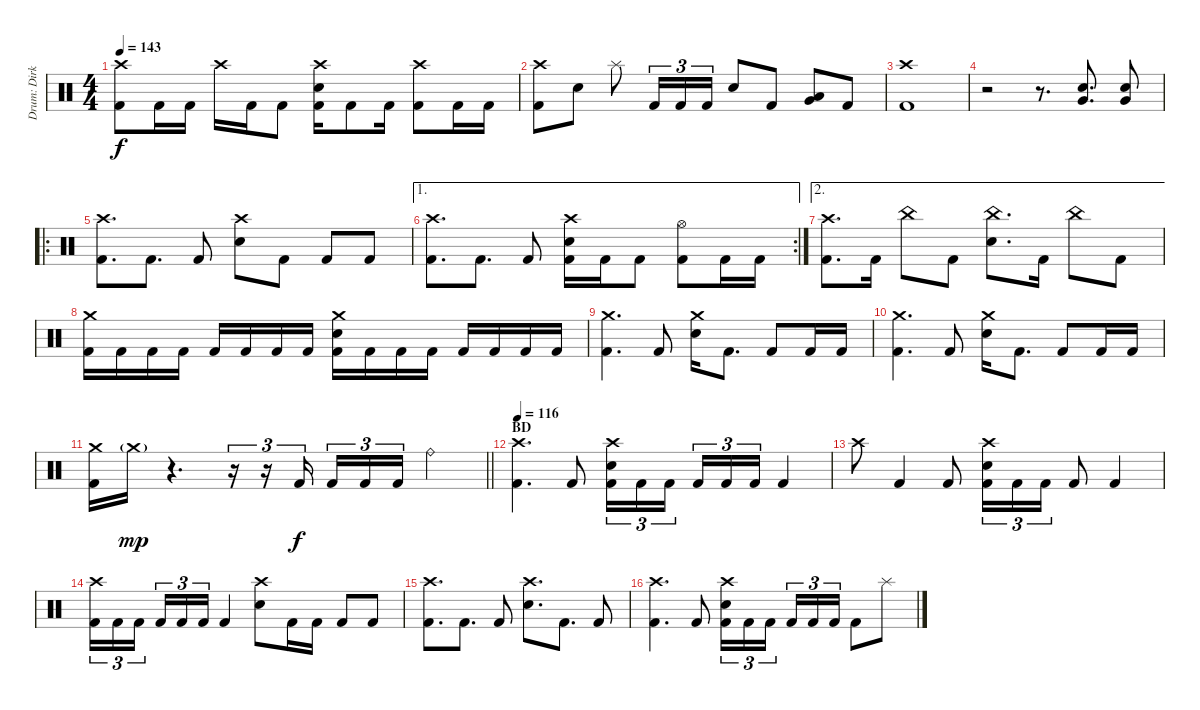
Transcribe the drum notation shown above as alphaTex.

\track ("Drum: Dirk" "Drum: Dirk") {instrument percussion}
\staff {score}
\articulation defaults
\ts (4 4)
\tempo 143
\clef neutral
\ks c
("Crash high (hit)" "Kick (hit) 2").8{dy f} "Kick (hit) 2".16 "Kick (hit) 2".16 "Crash high (hit)".16 "Kick (hit) 2".16 "Kick (hit) 2".8 ("Crash high (hit)" "Electric Snare (hit)" "Kick (hit) 2").16 "Kick (hit) 2".8 "Kick (hit) 2".16 ("Crash high (hit)" "Kick (hit) 2").8 "Kick (hit) 2".16 "Kick (hit) 2".16 |
("Crash high (hit)" "Kick (hit) 2").8 "Electric Snare (hit)".8 "Splash (hit)".8 "Kick (hit) 2".16{tu (3 2)} "Kick (hit) 2".16{tu (3 2)} "Kick (hit) 2".16{tu (3 2)} "Electric Snare (hit)".8 "Kick (hit) 2".8 ("Low Tom (hit)" "Very Low Tom (hit)").8 "Kick (hit) 2".8 |
("Crash high (hit)" "Kick (hit) 2").1 |
r.2 r.8{d} ("Electric Snare (hit)" "Very Low Tom (hit)").8{d} ("Electric Snare (hit)" "Very Low Tom (hit)").8 |
\ro
("Crash high (hit)" "Kick (hit) 2").8{d} "Kick (hit) 2".8{d} "Kick (hit) 2".8 ("Crash high (hit)" "Electric Snare (hit)").8 "Kick (hit) 2".8 "Kick (hit) 2".8 "Kick (hit) 2".8 |
\ae 1
\rc 2
("Crash high (hit)" "Kick (hit) 2").8{d} "Kick (hit) 2".8{d} "Kick (hit) 2".8 ("Crash high (hit)" "Electric Snare (hit)" "Kick (hit) 2").16 "Kick (hit) 2".16 "Kick (hit) 2".8 ("Hi-Hat (open)" "Kick (hit) 2").8 "Kick (hit) 2".16 "Kick (hit) 2".16 |
\ae 2
("Crash high (hit)" "Kick (hit) 2").8{d} "Kick (hit) 2".16 "China (hit)".8 "Kick (hit) 2".8 ("China (hit)" "Electric Snare (hit)").8{d} "Kick (hit) 2".16 "China (hit)".8 "Kick (hit) 2".8 |
("Crash medium (hit)" "Kick (hit) 2").16 "Kick (hit) 2".16 "Kick (hit) 2".16 "Kick (hit) 2".16 "Kick (hit) 2".16 "Kick (hit) 2".16 "Kick (hit) 2".16 "Kick (hit) 2".16 ("Crash medium (hit)" "Electric Snare (hit)" "Kick (hit) 2").16 "Kick (hit) 2".16 "Kick (hit) 2".16 "Kick (hit) 2".16 "Kick (hit) 2".16 "Kick (hit) 2".16 "Kick (hit) 2".16 "Kick (hit) 2".16 |
("Crash medium (hit)" "Kick (hit) 2").4{d} "Kick (hit) 2".8 ("Crash medium (hit)" "Electric Snare (hit)").16 "Kick (hit) 2".8{d} "Kick (hit) 2".8 "Kick (hit) 2".16 "Kick (hit) 2".16 |
("Crash medium (hit)" "Kick (hit) 2").4{d} "Kick (hit) 2".8 ("Crash medium (hit)" "Electric Snare (hit)").16 "Kick (hit) 2".8{d} "Kick (hit) 2".8 "Kick (hit) 2".16 "Kick (hit) 2".16 |
\barLineRight lightlight
("Crash medium (hit)" "Kick (hit) 2").16 "Crash medium (hit)"{g}.16{dy mp} r.4{d} r.16{tu (3 2)} r.16{tu (3 2)} "Kick (hit) 2".16{tu (3 2) dy f beam splitsecondary} "Kick (hit) 2".16{tu (3 2)} "Kick (hit) 2".16{tu (3 2)} "Kick (hit) 2".16{tu (3 2)} "Ride (bell)".4 |
\section ("" "BD")
\tempo 116
("Crash high (hit)" "Kick (hit) 2").4{d} "Kick (hit) 2".8 ("Crash high (hit)" "Electric Snare (hit)" "Kick (hit) 2").16{tu (3 2)} "Kick (hit) 2".16{tu (3 2)} "Kick (hit) 2".16{tu (3 2) beam splitsecondary} "Kick (hit) 2".16{tu (3 2)} "Kick (hit) 2".16{tu (3 2)} "Kick (hit) 2".16{tu (3 2)} "Kick (hit) 2".4 |
"Crash high (hit)".8 "Kick (hit) 2".4 "Kick (hit) 2".8 ("Crash high (hit)" "Electric Snare (hit)" "Kick (hit) 2").16{tu (3 2)} "Kick (hit) 2".16{tu (3 2)} "Kick (hit) 2".16{tu (3 2)} "Kick (hit) 2".8 "Kick (hit) 2".4 |
("Crash high (hit)" "Kick (hit) 2").16{tu (3 2)} "Kick (hit) 2".16{tu (3 2)} "Kick (hit) 2".16{tu (3 2) beam splitsecondary} "Kick (hit) 2".16{tu (3 2)} "Kick (hit) 2".16{tu (3 2)} "Kick (hit) 2".16{tu (3 2)} "Kick (hit) 2".4 ("Crash high (hit)" "Electric Snare (hit)").8 "Kick (hit) 2".16 "Kick (hit) 2".16 "Kick (hit) 2".8 "Kick (hit) 2".8 |
("Crash high (hit)" "Kick (hit) 2").8{d} "Kick (hit) 2".8{d} "Kick (hit) 2".8 ("Crash high (hit)" "Electric Snare (hit)").8{d} "Kick (hit) 2".8{d} "Kick (hit) 2".8 |
("Crash high (hit)" "Kick (hit) 2").4{d} "Kick (hit) 2".8 ("Crash high (hit)" "Electric Snare (hit)" "Kick (hit) 2").16{tu (3 2)} "Kick (hit) 2".16{tu (3 2)} "Kick (hit) 2".16{tu (3 2) beam splitsecondary} "Kick (hit) 2".16{tu (3 2)} "Kick (hit) 2".16{tu (3 2)} "Kick (hit) 2".16{tu (3 2)} "Kick (hit) 2".8 "Splash (hit)".8
